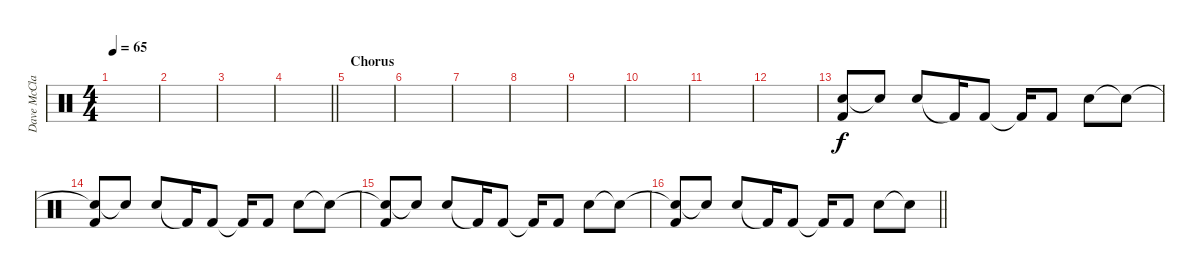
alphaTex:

\track ("Dave McClain" "Dave McCla") {instrument percussion bank 8}
\staff {score}
\articulation defaults
\ts (4 4)
\tempo 65
\clef neutral
\ks c
|
|
|
\barLineRight lightlight
|
\section ("" "Chorus")
|
|
|
|
|
|
|
|
("Snare (hit)" "Kick (hit) 2").8 "Snare (hit)"{t}.8 "Electric Snare (hit)".8 "Kick (hit) 2"{t}.16 "Kick (hit) 2".8 "Kick (hit) 2"{t}.16 "Kick (hit) 2".8 "Electric Snare (hit)".8 "Snare (hit)"{t}.8 |
("Snare (hit)"{t} "Kick (hit) 2").8 "Snare (hit)"{t}.8 "Electric Snare (hit)".8 "Kick (hit) 2"{t}.16 "Kick (hit) 2".8 "Kick (hit) 2"{t}.16 "Kick (hit) 2".8 "Electric Snare (hit)".8 "Snare (hit)"{t}.8 |
("Snare (hit)"{t} "Kick (hit) 2").8 "Snare (hit)"{t}.8 "Electric Snare (hit)".8 "Kick (hit) 2"{t}.16 "Kick (hit) 2".8 "Kick (hit) 2"{t}.16 "Kick (hit) 2".8 "Electric Snare (hit)".8 "Snare (hit)"{t}.8 |
\barLineRight lightlight
("Snare (hit)"{t} "Kick (hit) 2").8 "Snare (hit)"{t}.8 "Electric Snare (hit)".8 "Kick (hit) 2"{t}.16 "Kick (hit) 2".8 "Kick (hit) 2"{t}.16 "Kick (hit) 2".8 "Electric Snare (hit)".8 "Snare (hit)"{t}.8
